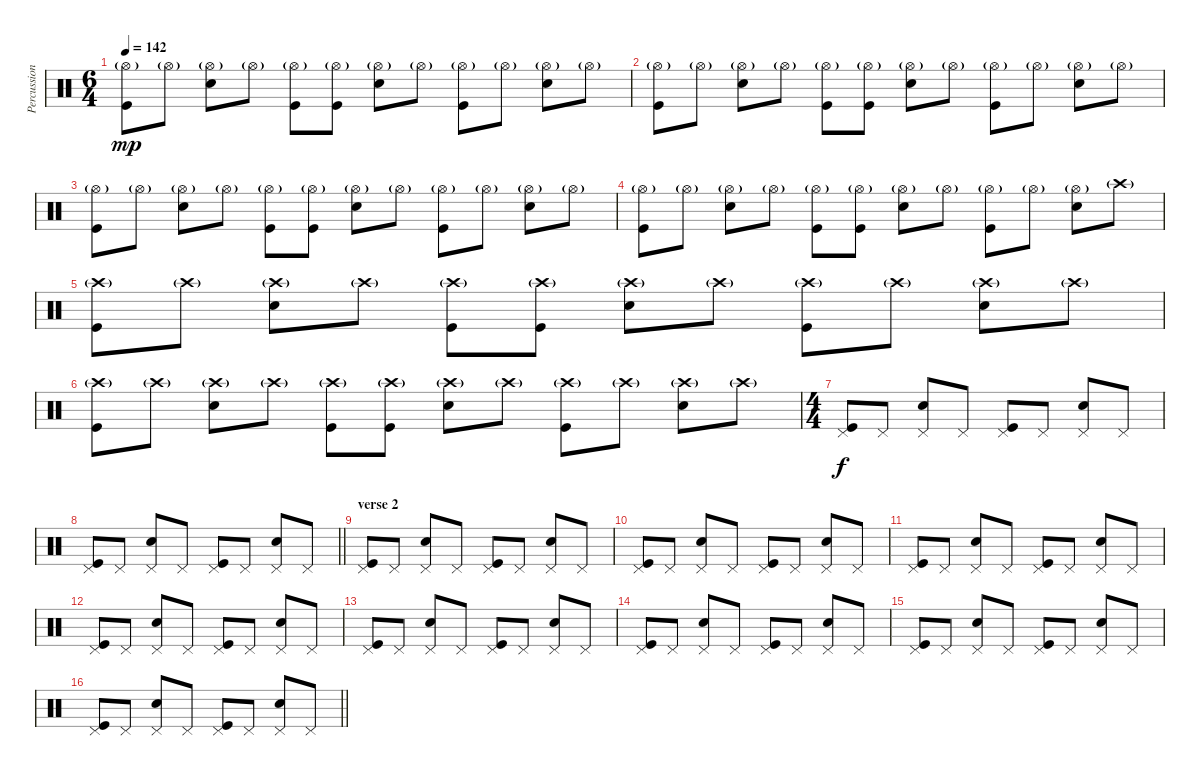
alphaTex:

\track ("Percussions" "Percussion") {instrument percussion}
\staff {score}
\articulation defaults
\ts (6 4)
\tempo 142
\clef neutral
\ks c
("Hi-Hat (open)"{g} "Kick (hit)").8{dy mp} "Hi-Hat (open)"{g}.8 ("Hi-Hat (open)"{g} "Electric Snare (hit)").8 "Hi-Hat (open)"{g}.8 ("Hi-Hat (open)"{g} "Kick (hit)").8 ("Hi-Hat (open)"{g} "Kick (hit)").8 ("Hi-Hat (open)"{g} "Electric Snare (hit)").8 "Hi-Hat (open)"{g}.8 ("Hi-Hat (open)"{g} "Kick (hit)").8 "Hi-Hat (open)"{g}.8 ("Hi-Hat (open)"{g} "Electric Snare (hit)").8 "Hi-Hat (open)"{g}.8 |
("Hi-Hat (open)"{g} "Kick (hit)").8 "Hi-Hat (open)"{g}.8 ("Hi-Hat (open)"{g} "Electric Snare (hit)").8 "Hi-Hat (open)"{g}.8 ("Hi-Hat (open)"{g} "Kick (hit)").8 ("Hi-Hat (open)"{g} "Kick (hit)").8 ("Hi-Hat (open)"{g} "Electric Snare (hit)").8 "Hi-Hat (open)"{g}.8 ("Hi-Hat (open)"{g} "Kick (hit)").8 "Hi-Hat (open)"{g}.8 ("Hi-Hat (open)"{g} "Electric Snare (hit)").8 "Hi-Hat (open)"{g}.8 |
("Hi-Hat (open)"{g} "Kick (hit)").8 "Hi-Hat (open)"{g}.8 ("Hi-Hat (open)"{g} "Electric Snare (hit)").8 "Hi-Hat (open)"{g}.8 ("Hi-Hat (open)"{g} "Kick (hit)").8 ("Hi-Hat (open)"{g} "Kick (hit)").8 ("Hi-Hat (open)"{g} "Electric Snare (hit)").8 "Hi-Hat (open)"{g}.8 ("Hi-Hat (open)"{g} "Kick (hit)").8 "Hi-Hat (open)"{g}.8 ("Hi-Hat (open)"{g} "Electric Snare (hit)").8 "Hi-Hat (open)"{g}.8 |
("Hi-Hat (open)"{g} "Kick (hit)").8 "Hi-Hat (open)"{g}.8 ("Hi-Hat (open)"{g} "Electric Snare (hit)").8 "Hi-Hat (open)"{g}.8 ("Hi-Hat (open)"{g} "Kick (hit)").8 ("Hi-Hat (open)"{g} "Kick (hit)").8 ("Hi-Hat (open)"{g} "Electric Snare (hit)").8 "Hi-Hat (open)"{g}.8 ("Hi-Hat (open)"{g} "Kick (hit)").8 "Hi-Hat (open)"{g}.8 ("Hi-Hat (open)"{g} "Electric Snare (hit)").8 "Crash high (hit)"{g}.8 |
("Crash high (hit)"{g} "Kick (hit)").8 "Crash high (hit)"{g}.8 ("Crash high (hit)"{g} "Electric Snare (hit)").8 "Crash high (hit)"{g}.8 ("Crash high (hit)"{g} "Kick (hit)").8 ("Crash high (hit)"{g} "Kick (hit)").8 ("Crash high (hit)"{g} "Electric Snare (hit)").8 "Crash high (hit)"{g}.8 ("Crash high (hit)"{g} "Kick (hit)").8 "Crash high (hit)"{g}.8 ("Crash high (hit)"{g} "Electric Snare (hit)").8 "Crash high (hit)"{g}.8 |
("Crash high (hit)"{g} "Kick (hit)").8 "Crash high (hit)"{g}.8 ("Crash high (hit)"{g} "Electric Snare (hit)").8 "Crash high (hit)"{g}.8 ("Crash high (hit)"{g} "Kick (hit)").8 ("Crash high (hit)"{g} "Kick (hit)").8 ("Crash high (hit)"{g} "Electric Snare (hit)").8 "Crash high (hit)"{g}.8 ("Crash high (hit)"{g} "Kick (hit)").8 "Crash high (hit)"{g}.8 ("Crash high (hit)"{g} "Electric Snare (hit)").8 "Crash high (hit)"{g}.8 |
\ts (4 4)
("Pedal Hi-Hat (hit)" "Kick (hit)").8{dy f} "Pedal Hi-Hat (hit)".8 ("Pedal Hi-Hat (hit)" "Electric Snare (hit)").8 "Pedal Hi-Hat (hit)".8 ("Pedal Hi-Hat (hit)" "Kick (hit)").8 "Pedal Hi-Hat (hit)".8 ("Pedal Hi-Hat (hit)" "Electric Snare (hit)").8 "Pedal Hi-Hat (hit)".8 |
\barLineRight lightlight
("Pedal Hi-Hat (hit)" "Kick (hit)").8 "Pedal Hi-Hat (hit)".8 ("Pedal Hi-Hat (hit)" "Electric Snare (hit)").8 "Pedal Hi-Hat (hit)".8 ("Pedal Hi-Hat (hit)" "Kick (hit)").8 "Pedal Hi-Hat (hit)".8 ("Pedal Hi-Hat (hit)" "Electric Snare (hit)").8 "Pedal Hi-Hat (hit)".8 |
\section ("" "verse 2")
("Pedal Hi-Hat (hit)" "Kick (hit)").8 "Pedal Hi-Hat (hit)".8 ("Pedal Hi-Hat (hit)" "Electric Snare (hit)").8 "Pedal Hi-Hat (hit)".8 ("Pedal Hi-Hat (hit)" "Kick (hit)").8 "Pedal Hi-Hat (hit)".8 ("Pedal Hi-Hat (hit)" "Electric Snare (hit)").8 "Pedal Hi-Hat (hit)".8 |
("Pedal Hi-Hat (hit)" "Kick (hit)").8 "Pedal Hi-Hat (hit)".8 ("Pedal Hi-Hat (hit)" "Electric Snare (hit)").8 "Pedal Hi-Hat (hit)".8 ("Pedal Hi-Hat (hit)" "Kick (hit)").8 "Pedal Hi-Hat (hit)".8 ("Pedal Hi-Hat (hit)" "Electric Snare (hit)").8 "Pedal Hi-Hat (hit)".8 |
("Pedal Hi-Hat (hit)" "Kick (hit)").8 "Pedal Hi-Hat (hit)".8 ("Pedal Hi-Hat (hit)" "Electric Snare (hit)").8 "Pedal Hi-Hat (hit)".8 ("Pedal Hi-Hat (hit)" "Kick (hit)").8 "Pedal Hi-Hat (hit)".8 ("Pedal Hi-Hat (hit)" "Electric Snare (hit)").8 "Pedal Hi-Hat (hit)".8 |
("Pedal Hi-Hat (hit)" "Kick (hit)").8 "Pedal Hi-Hat (hit)".8 ("Pedal Hi-Hat (hit)" "Electric Snare (hit)").8 "Pedal Hi-Hat (hit)".8 ("Pedal Hi-Hat (hit)" "Kick (hit)").8 "Pedal Hi-Hat (hit)".8 ("Pedal Hi-Hat (hit)" "Electric Snare (hit)").8 "Pedal Hi-Hat (hit)".8 |
("Pedal Hi-Hat (hit)" "Kick (hit)").8 "Pedal Hi-Hat (hit)".8 ("Pedal Hi-Hat (hit)" "Electric Snare (hit)").8 "Pedal Hi-Hat (hit)".8 ("Pedal Hi-Hat (hit)" "Kick (hit)").8 "Pedal Hi-Hat (hit)".8 ("Pedal Hi-Hat (hit)" "Electric Snare (hit)").8 "Pedal Hi-Hat (hit)".8 |
("Pedal Hi-Hat (hit)" "Kick (hit)").8 "Pedal Hi-Hat (hit)".8 ("Pedal Hi-Hat (hit)" "Electric Snare (hit)").8 "Pedal Hi-Hat (hit)".8 ("Pedal Hi-Hat (hit)" "Kick (hit)").8 "Pedal Hi-Hat (hit)".8 ("Pedal Hi-Hat (hit)" "Electric Snare (hit)").8 "Pedal Hi-Hat (hit)".8 |
("Pedal Hi-Hat (hit)" "Kick (hit)").8 "Pedal Hi-Hat (hit)".8 ("Pedal Hi-Hat (hit)" "Electric Snare (hit)").8 "Pedal Hi-Hat (hit)".8 ("Pedal Hi-Hat (hit)" "Kick (hit)").8 "Pedal Hi-Hat (hit)".8 ("Pedal Hi-Hat (hit)" "Electric Snare (hit)").8 "Pedal Hi-Hat (hit)".8 |
\barLineRight lightlight
("Pedal Hi-Hat (hit)" "Kick (hit)").8 "Pedal Hi-Hat (hit)".8 ("Pedal Hi-Hat (hit)" "Electric Snare (hit)").8 "Pedal Hi-Hat (hit)".8 ("Pedal Hi-Hat (hit)" "Kick (hit)").8 "Pedal Hi-Hat (hit)".8 ("Pedal Hi-Hat (hit)" "Electric Snare (hit)").8 "Pedal Hi-Hat (hit)".8
